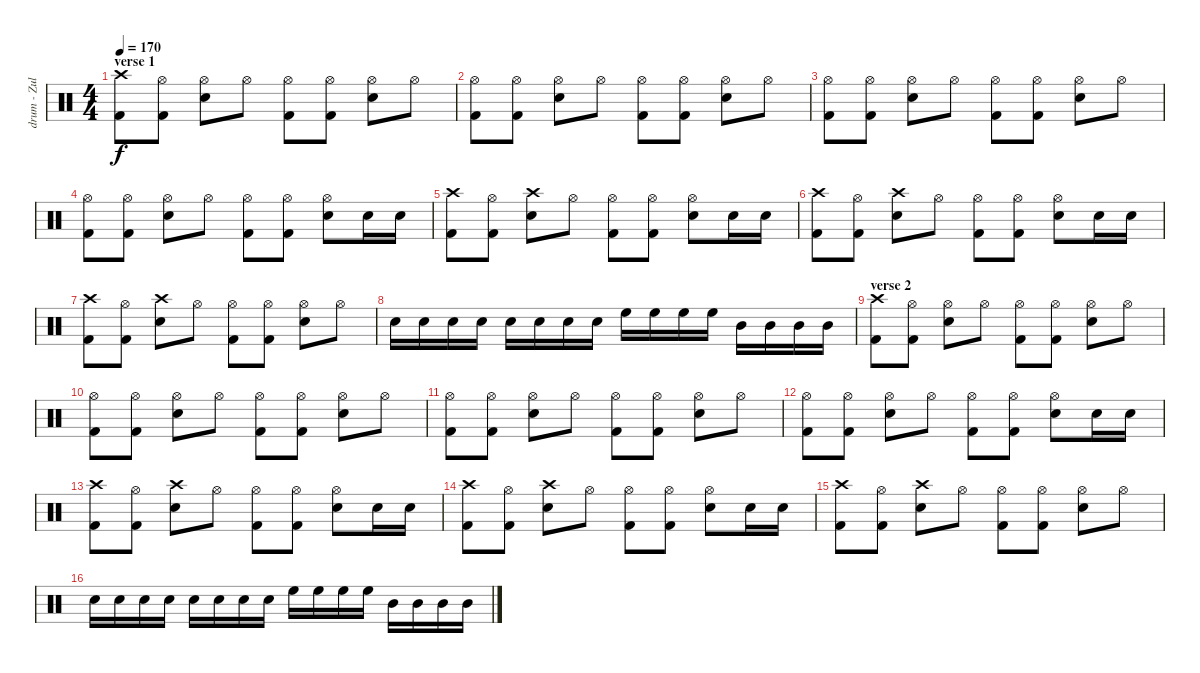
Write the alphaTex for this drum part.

\track ("drum - Zul ???" "drum - Zul") {instrument percussion}
\staff {score}
\articulation defaults
\ts (4 4)
\section ("" "verse 1")
\tempo 170
\clef neutral
\ks c
("Crash high (hit)" "Kick (hit) 2").8{dy f} ("Hi-Hat (open)" "Kick (hit) 2").8 ("Hi-Hat (open)" "Snare (hit) 2").8 "Hi-Hat (open)".8 ("Hi-Hat (open)" "Kick (hit) 2").8 ("Hi-Hat (open)" "Kick (hit) 2").8 ("Hi-Hat (open)" "Snare (hit) 2").8 "Hi-Hat (open)".8 |
("Hi-Hat (open)" "Kick (hit) 2").8 ("Hi-Hat (open)" "Kick (hit) 2").8 ("Hi-Hat (open)" "Snare (hit) 2").8 "Hi-Hat (open)".8 ("Hi-Hat (open)" "Kick (hit) 2").8 ("Hi-Hat (open)" "Kick (hit) 2").8 ("Hi-Hat (open)" "Snare (hit) 2").8 "Hi-Hat (open)".8 |
("Hi-Hat (open)" "Kick (hit) 2").8 ("Hi-Hat (open)" "Kick (hit) 2").8 ("Hi-Hat (open)" "Snare (hit) 2").8 "Hi-Hat (open)".8 ("Hi-Hat (open)" "Kick (hit) 2").8 ("Hi-Hat (open)" "Kick (hit) 2").8 ("Hi-Hat (open)" "Snare (hit) 2").8 "Hi-Hat (open)".8 |
("Hi-Hat (open)" "Kick (hit) 2").8 ("Hi-Hat (open)" "Kick (hit) 2").8 ("Hi-Hat (open)" "Snare (hit) 2").8 "Hi-Hat (open)".8 ("Hi-Hat (open)" "Kick (hit) 2").8 ("Hi-Hat (open)" "Kick (hit) 2").8 ("Hi-Hat (open)" "Snare (hit) 2").8 "Snare (hit) 2".16 "Snare (hit) 2".16 |
("Crash high (hit)" "Kick (hit) 2").8 ("Hi-Hat (open)" "Kick (hit) 2").8 ("Crash high (hit)" "Snare (hit) 2").8 "Hi-Hat (open)".8 ("Hi-Hat (open)" "Kick (hit) 2").8 ("Hi-Hat (open)" "Kick (hit) 2").8 ("Hi-Hat (open)" "Snare (hit) 2").8 "Snare (hit) 2".16 "Snare (hit) 2".16 |
("Crash high (hit)" "Kick (hit) 2").8 ("Hi-Hat (open)" "Kick (hit) 2").8 ("Crash high (hit)" "Snare (hit) 2").8 "Hi-Hat (open)".8 ("Hi-Hat (open)" "Kick (hit) 2").8 ("Hi-Hat (open)" "Kick (hit) 2").8 ("Hi-Hat (open)" "Snare (hit) 2").8 "Snare (hit) 2".16 "Snare (hit) 2".16 |
("Crash high (hit)" "Kick (hit) 2").8 ("Hi-Hat (open)" "Kick (hit) 2").8 ("Crash high (hit)" "Snare (hit) 2").8 "Hi-Hat (open)".8 ("Hi-Hat (open)" "Kick (hit) 2").8 ("Hi-Hat (open)" "Kick (hit) 2").8 ("Hi-Hat (open)" "Snare (hit) 2").8 "Hi-Hat (open)".8 |
"Snare (hit) 2".16 "Snare (hit) 2".16 "Snare (hit) 2".16 "Snare (hit) 2".16 "Snare (hit) 2".16 "Snare (hit) 2".16 "Snare (hit) 2".16 "Snare (hit) 2".16 "High Floor Tom (hit)".16 "High Floor Tom (hit)".16 "High Floor Tom (hit)".16 "High Floor Tom (hit)".16 "Mid Tom (hit)".16 "Mid Tom (hit)".16 "Mid Tom (hit)".16 "Mid Tom (hit)".16 |
\section ("" "verse 2")
("Crash high (hit)" "Kick (hit) 2").8 ("Hi-Hat (open)" "Kick (hit) 2").8 ("Hi-Hat (open)" "Snare (hit) 2").8 "Hi-Hat (open)".8 ("Hi-Hat (open)" "Kick (hit) 2").8 ("Hi-Hat (open)" "Kick (hit) 2").8 ("Hi-Hat (open)" "Snare (hit) 2").8 "Hi-Hat (open)".8 |
("Hi-Hat (open)" "Kick (hit) 2").8 ("Hi-Hat (open)" "Kick (hit) 2").8 ("Hi-Hat (open)" "Snare (hit) 2").8 "Hi-Hat (open)".8 ("Hi-Hat (open)" "Kick (hit) 2").8 ("Hi-Hat (open)" "Kick (hit) 2").8 ("Hi-Hat (open)" "Snare (hit) 2").8 "Hi-Hat (open)".8 |
("Hi-Hat (open)" "Kick (hit) 2").8 ("Hi-Hat (open)" "Kick (hit) 2").8 ("Hi-Hat (open)" "Snare (hit) 2").8 "Hi-Hat (open)".8 ("Hi-Hat (open)" "Kick (hit) 2").8 ("Hi-Hat (open)" "Kick (hit) 2").8 ("Hi-Hat (open)" "Snare (hit) 2").8 "Hi-Hat (open)".8 |
("Hi-Hat (open)" "Kick (hit) 2").8 ("Hi-Hat (open)" "Kick (hit) 2").8 ("Hi-Hat (open)" "Snare (hit) 2").8 "Hi-Hat (open)".8 ("Hi-Hat (open)" "Kick (hit) 2").8 ("Hi-Hat (open)" "Kick (hit) 2").8 ("Hi-Hat (open)" "Snare (hit) 2").8 "Snare (hit) 2".16 "Snare (hit) 2".16 |
("Crash high (hit)" "Kick (hit) 2").8 ("Hi-Hat (open)" "Kick (hit) 2").8 ("Crash high (hit)" "Snare (hit) 2").8 "Hi-Hat (open)".8 ("Hi-Hat (open)" "Kick (hit) 2").8 ("Hi-Hat (open)" "Kick (hit) 2").8 ("Hi-Hat (open)" "Snare (hit) 2").8 "Snare (hit) 2".16 "Snare (hit) 2".16 |
("Crash high (hit)" "Kick (hit) 2").8 ("Hi-Hat (open)" "Kick (hit) 2").8 ("Crash high (hit)" "Snare (hit) 2").8 "Hi-Hat (open)".8 ("Hi-Hat (open)" "Kick (hit) 2").8 ("Hi-Hat (open)" "Kick (hit) 2").8 ("Hi-Hat (open)" "Snare (hit) 2").8 "Snare (hit) 2".16 "Snare (hit) 2".16 |
("Crash high (hit)" "Kick (hit) 2").8 ("Hi-Hat (open)" "Kick (hit) 2").8 ("Crash high (hit)" "Snare (hit) 2").8 "Hi-Hat (open)".8 ("Hi-Hat (open)" "Kick (hit) 2").8 ("Hi-Hat (open)" "Kick (hit) 2").8 ("Hi-Hat (open)" "Snare (hit) 2").8 "Hi-Hat (open)".8 |
"Snare (hit) 2".16 "Snare (hit) 2".16 "Snare (hit) 2".16 "Snare (hit) 2".16 "Snare (hit) 2".16 "Snare (hit) 2".16 "Snare (hit) 2".16 "Snare (hit) 2".16 "High Floor Tom (hit)".16 "High Floor Tom (hit)".16 "High Floor Tom (hit)".16 "High Floor Tom (hit)".16 "Mid Tom (hit)".16 "Mid Tom (hit)".16 "Mid Tom (hit)".16 "Mid Tom (hit)".16
